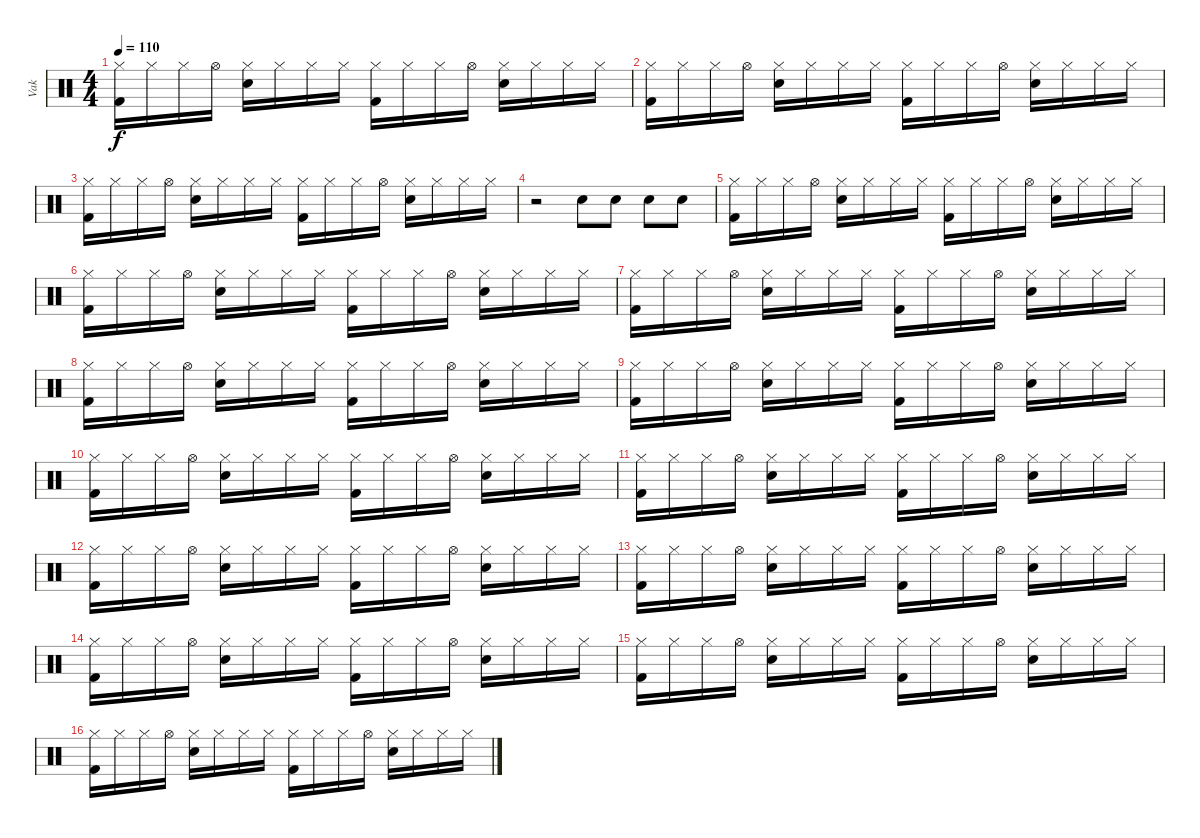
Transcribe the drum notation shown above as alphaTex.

\track ("Vak" "Vak") {instrument percussion}
\staff {score}
\articulation defaults
\ts (4 4)
\tempo 110
\clef neutral
\ks c
("Hi-Hat (closed)" "Kick (hit) 2").16{dy f} "Hi-Hat (closed)".16 "Hi-Hat (closed)".16 "Hi-Hat (open)".16 ("Hi-Hat (closed)" "Snare (hit) 2").16 "Hi-Hat (closed)".16 "Hi-Hat (closed)".16 "Hi-Hat (closed)".16 ("Hi-Hat (closed)" "Kick (hit) 2").16 "Hi-Hat (closed)".16 "Hi-Hat (closed)".16 "Hi-Hat (open)".16 ("Hi-Hat (closed)" "Snare (hit) 2").16 "Hi-Hat (closed)".16 "Hi-Hat (closed)".16 "Hi-Hat (closed)".16 |
("Hi-Hat (closed)" "Kick (hit) 2").16 "Hi-Hat (closed)".16 "Hi-Hat (closed)".16 "Hi-Hat (open)".16 ("Hi-Hat (closed)" "Snare (hit) 2").16 "Hi-Hat (closed)".16 "Hi-Hat (closed)".16 "Hi-Hat (closed)".16 ("Hi-Hat (closed)" "Kick (hit) 2").16 "Hi-Hat (closed)".16 "Hi-Hat (closed)".16 "Hi-Hat (open)".16 ("Hi-Hat (closed)" "Snare (hit) 2").16 "Hi-Hat (closed)".16 "Hi-Hat (closed)".16 "Hi-Hat (closed)".16 |
("Hi-Hat (closed)" "Kick (hit) 2").16 "Hi-Hat (closed)".16 "Hi-Hat (closed)".16 "Hi-Hat (open)".16 ("Hi-Hat (closed)" "Snare (hit) 2").16 "Hi-Hat (closed)".16 "Hi-Hat (closed)".16 "Hi-Hat (closed)".16 ("Hi-Hat (closed)" "Kick (hit) 2").16 "Hi-Hat (closed)".16 "Hi-Hat (closed)".16 "Hi-Hat (open)".16 ("Hi-Hat (closed)" "Snare (hit) 2").16 "Hi-Hat (closed)".16 "Hi-Hat (closed)".16 "Hi-Hat (closed)".16 |
r.2 "Snare (hit) 2".8 "Snare (hit) 2".8 "Snare (hit) 2".8 "Snare (hit) 2".8 |
("Hi-Hat (closed)" "Kick (hit) 2").16 "Hi-Hat (closed)".16 "Hi-Hat (closed)".16 "Hi-Hat (open)".16 ("Hi-Hat (closed)" "Snare (hit) 2").16 "Hi-Hat (closed)".16 "Hi-Hat (closed)".16 "Hi-Hat (closed)".16 ("Hi-Hat (closed)" "Kick (hit) 2").16 "Hi-Hat (closed)".16 "Hi-Hat (closed)".16 "Hi-Hat (open)".16 ("Hi-Hat (closed)" "Snare (hit) 2").16 "Hi-Hat (closed)".16 "Hi-Hat (closed)".16 "Hi-Hat (closed)".16 |
("Hi-Hat (closed)" "Kick (hit) 2").16 "Hi-Hat (closed)".16 "Hi-Hat (closed)".16 "Hi-Hat (open)".16 ("Hi-Hat (closed)" "Snare (hit) 2").16 "Hi-Hat (closed)".16 "Hi-Hat (closed)".16 "Hi-Hat (closed)".16 ("Hi-Hat (closed)" "Kick (hit) 2").16 "Hi-Hat (closed)".16 "Hi-Hat (closed)".16 "Hi-Hat (open)".16 ("Hi-Hat (closed)" "Snare (hit) 2").16 "Hi-Hat (closed)".16 "Hi-Hat (closed)".16 "Hi-Hat (closed)".16 |
("Hi-Hat (closed)" "Kick (hit) 2").16 "Hi-Hat (closed)".16 "Hi-Hat (closed)".16 "Hi-Hat (open)".16 ("Hi-Hat (closed)" "Snare (hit) 2").16 "Hi-Hat (closed)".16 "Hi-Hat (closed)".16 "Hi-Hat (closed)".16 ("Hi-Hat (closed)" "Kick (hit) 2").16 "Hi-Hat (closed)".16 "Hi-Hat (closed)".16 "Hi-Hat (open)".16 ("Hi-Hat (closed)" "Snare (hit) 2").16 "Hi-Hat (closed)".16 "Hi-Hat (closed)".16 "Hi-Hat (closed)".16 |
("Hi-Hat (closed)" "Kick (hit) 2").16 "Hi-Hat (closed)".16 "Hi-Hat (closed)".16 "Hi-Hat (open)".16 ("Hi-Hat (closed)" "Snare (hit) 2").16 "Hi-Hat (closed)".16 "Hi-Hat (closed)".16 "Hi-Hat (closed)".16 ("Hi-Hat (closed)" "Kick (hit) 2").16 "Hi-Hat (closed)".16 "Hi-Hat (closed)".16 "Hi-Hat (open)".16 ("Hi-Hat (closed)" "Snare (hit) 2").16 "Hi-Hat (closed)".16 "Hi-Hat (closed)".16 "Hi-Hat (closed)".16 |
("Hi-Hat (closed)" "Kick (hit) 2").16 "Hi-Hat (closed)".16 "Hi-Hat (closed)".16 "Hi-Hat (open)".16 ("Hi-Hat (closed)" "Snare (hit) 2").16 "Hi-Hat (closed)".16 "Hi-Hat (closed)".16 "Hi-Hat (closed)".16 ("Hi-Hat (closed)" "Kick (hit) 2").16 "Hi-Hat (closed)".16 "Hi-Hat (closed)".16 "Hi-Hat (open)".16 ("Hi-Hat (closed)" "Snare (hit) 2").16 "Hi-Hat (closed)".16 "Hi-Hat (closed)".16 "Hi-Hat (closed)".16 |
("Hi-Hat (closed)" "Kick (hit) 2").16 "Hi-Hat (closed)".16 "Hi-Hat (closed)".16 "Hi-Hat (open)".16 ("Hi-Hat (closed)" "Snare (hit) 2").16 "Hi-Hat (closed)".16 "Hi-Hat (closed)".16 "Hi-Hat (closed)".16 ("Hi-Hat (closed)" "Kick (hit) 2").16 "Hi-Hat (closed)".16 "Hi-Hat (closed)".16 "Hi-Hat (open)".16 ("Hi-Hat (closed)" "Snare (hit) 2").16 "Hi-Hat (closed)".16 "Hi-Hat (closed)".16 "Hi-Hat (closed)".16 |
("Hi-Hat (closed)" "Kick (hit) 2").16 "Hi-Hat (closed)".16 "Hi-Hat (closed)".16 "Hi-Hat (open)".16 ("Hi-Hat (closed)" "Snare (hit) 2").16 "Hi-Hat (closed)".16 "Hi-Hat (closed)".16 "Hi-Hat (closed)".16 ("Hi-Hat (closed)" "Kick (hit) 2").16 "Hi-Hat (closed)".16 "Hi-Hat (closed)".16 "Hi-Hat (open)".16 ("Hi-Hat (closed)" "Snare (hit) 2").16 "Hi-Hat (closed)".16 "Hi-Hat (closed)".16 "Hi-Hat (closed)".16 |
("Hi-Hat (closed)" "Kick (hit) 2").16 "Hi-Hat (closed)".16 "Hi-Hat (closed)".16 "Hi-Hat (open)".16 ("Hi-Hat (closed)" "Snare (hit) 2").16 "Hi-Hat (closed)".16 "Hi-Hat (closed)".16 "Hi-Hat (closed)".16 ("Hi-Hat (closed)" "Kick (hit) 2").16 "Hi-Hat (closed)".16 "Hi-Hat (closed)".16 "Hi-Hat (open)".16 ("Hi-Hat (closed)" "Snare (hit) 2").16 "Hi-Hat (closed)".16 "Hi-Hat (closed)".16 "Hi-Hat (closed)".16 |
("Hi-Hat (closed)" "Kick (hit) 2").16 "Hi-Hat (closed)".16 "Hi-Hat (closed)".16 "Hi-Hat (open)".16 ("Hi-Hat (closed)" "Snare (hit) 2").16 "Hi-Hat (closed)".16 "Hi-Hat (closed)".16 "Hi-Hat (closed)".16 ("Hi-Hat (closed)" "Kick (hit) 2").16 "Hi-Hat (closed)".16 "Hi-Hat (closed)".16 "Hi-Hat (open)".16 ("Hi-Hat (closed)" "Snare (hit) 2").16 "Hi-Hat (closed)".16 "Hi-Hat (closed)".16 "Hi-Hat (closed)".16 |
("Hi-Hat (closed)" "Kick (hit) 2").16 "Hi-Hat (closed)".16 "Hi-Hat (closed)".16 "Hi-Hat (open)".16 ("Hi-Hat (closed)" "Snare (hit) 2").16 "Hi-Hat (closed)".16 "Hi-Hat (closed)".16 "Hi-Hat (closed)".16 ("Hi-Hat (closed)" "Kick (hit) 2").16 "Hi-Hat (closed)".16 "Hi-Hat (closed)".16 "Hi-Hat (open)".16 ("Hi-Hat (closed)" "Snare (hit) 2").16 "Hi-Hat (closed)".16 "Hi-Hat (closed)".16 "Hi-Hat (closed)".16 |
("Hi-Hat (closed)" "Kick (hit) 2").16 "Hi-Hat (closed)".16 "Hi-Hat (closed)".16 "Hi-Hat (open)".16 ("Hi-Hat (closed)" "Snare (hit) 2").16 "Hi-Hat (closed)".16 "Hi-Hat (closed)".16 "Hi-Hat (closed)".16 ("Hi-Hat (closed)" "Kick (hit) 2").16 "Hi-Hat (closed)".16 "Hi-Hat (closed)".16 "Hi-Hat (open)".16 ("Hi-Hat (closed)" "Snare (hit) 2").16 "Hi-Hat (closed)".16 "Hi-Hat (closed)".16 "Hi-Hat (closed)".16 |
("Hi-Hat (closed)" "Kick (hit) 2").16 "Hi-Hat (closed)".16 "Hi-Hat (closed)".16 "Hi-Hat (open)".16 ("Hi-Hat (closed)" "Snare (hit) 2").16 "Hi-Hat (closed)".16 "Hi-Hat (closed)".16 "Hi-Hat (closed)".16 ("Hi-Hat (closed)" "Kick (hit) 2").16 "Hi-Hat (closed)".16 "Hi-Hat (closed)".16 "Hi-Hat (open)".16 ("Hi-Hat (closed)" "Snare (hit) 2").16 "Hi-Hat (closed)".16 "Hi-Hat (closed)".16 "Hi-Hat (closed)".16
